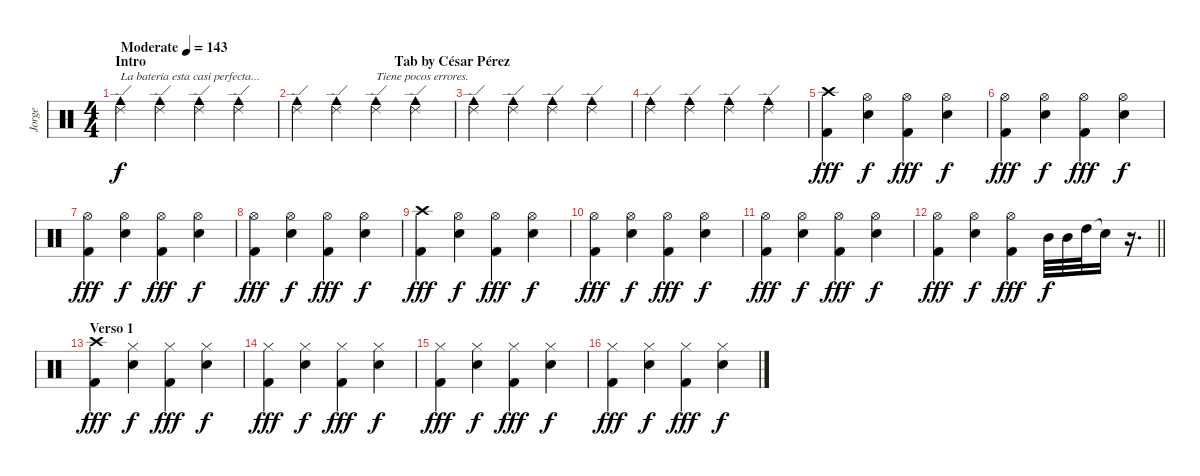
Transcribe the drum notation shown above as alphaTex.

\track ("Jorge" "Jorge") {instrument percussion}
\staff {score}
\articulation defaults
\ts (4 4)
\section ("" "Intro                                                                       Tab by César Pérez")
\tempo (143 "Moderate")
\clef neutral
\ks c
("Ride (edge) 2" "Cowbell medium (hit)").4{txt "La batería esta casi perfecta..." dy f} ("Ride (edge) 2" "Cowbell medium (hit)").4 ("Ride (edge) 2" "Cowbell medium (hit)").4 ("Ride (edge) 2" "Cowbell medium (hit)").4 |
("Ride (edge) 2" "Cowbell medium (hit)").4 ("Ride (edge) 2" "Cowbell medium (hit)").4 ("Ride (edge) 2" "Cowbell medium (hit)").4{txt "Tiene pocos errores."} ("Ride (edge) 2" "Cowbell medium (hit)").4 |
("Ride (edge) 2" "Cowbell medium (hit)").4 ("Ride (edge) 2" "Cowbell medium (hit)").4 ("Ride (edge) 2" "Cowbell medium (hit)").4 ("Ride (edge) 2" "Cowbell medium (hit)").4 |
("Ride (edge) 2" "Cowbell medium (hit)").4 ("Ride (edge) 2" "Cowbell medium (hit)").4 ("Ride (edge) 2" "Cowbell medium (hit)").4 ("Ride (edge) 2" "Cowbell medium (hit)").4 |
("Crash high (hit)" "Kick (hit) 2").4{dy fff} ("Hi-Hat (open)" "Electric Snare (hit)").4{dy f} ("Hi-Hat (open)" "Kick (hit) 2").4{dy fff} ("Hi-Hat (open)" "Electric Snare (hit)").4{dy f} |
("Hi-Hat (open)" "Kick (hit) 2").4{dy fff} ("Hi-Hat (open)" "Electric Snare (hit)").4{dy f} ("Hi-Hat (open)" "Kick (hit) 2").4{dy fff} ("Hi-Hat (open)" "Electric Snare (hit)").4{dy f} |
("Hi-Hat (open)" "Kick (hit) 2").4{dy fff} ("Hi-Hat (open)" "Electric Snare (hit)").4{dy f} ("Hi-Hat (open)" "Kick (hit) 2").4{dy fff} ("Hi-Hat (open)" "Electric Snare (hit)").4{dy f} |
("Hi-Hat (open)" "Kick (hit) 2").4{dy fff} ("Hi-Hat (open)" "Electric Snare (hit)").4{dy f} ("Hi-Hat (open)" "Kick (hit) 2").4{dy fff} ("Hi-Hat (open)" "Electric Snare (hit)").4{dy f} |
("Crash high (hit)" "Kick (hit) 2").4{dy fff} ("Hi-Hat (open)" "Electric Snare (hit)").4{dy f} ("Hi-Hat (open)" "Kick (hit) 2").4{dy fff} ("Hi-Hat (open)" "Electric Snare (hit)").4{dy f} |
("Hi-Hat (open)" "Kick (hit) 2").4{dy fff} ("Hi-Hat (open)" "Electric Snare (hit)").4{dy f} ("Hi-Hat (open)" "Kick (hit) 2").4{dy fff} ("Hi-Hat (open)" "Electric Snare (hit)").4{dy f} |
("Hi-Hat (open)" "Kick (hit) 2").4{dy fff} ("Hi-Hat (open)" "Electric Snare (hit)").4{dy f} ("Hi-Hat (open)" "Kick (hit) 2").4{dy fff} ("Hi-Hat (open)" "Electric Snare (hit)").4{dy f} |
\barLineRight lightlight
("Hi-Hat (open)" "Kick (hit) 2").4{dy fff} ("Hi-Hat (open)" "Electric Snare (hit)").4{dy f} ("Hi-Hat (open)" "Kick (hit) 2").4{dy fff} "Mid Tom (hit)".32{dy f} "Mid Tom (hit)".32 "High Tom (hit)".32 "Snare (hit)"{t}.16 r.16{d} |
\section ("" "Verso 1")
("Crash high (hit)" "Kick (hit) 2").4{dy fff} ("Hi-Hat (closed)" "Electric Snare (hit)").4{dy f} ("Hi-Hat (closed)" "Kick (hit) 2").4{dy fff} ("Hi-Hat (closed)" "Electric Snare (hit)").4{dy f} |
("Hi-Hat (closed)" "Kick (hit) 2").4{dy fff} ("Hi-Hat (closed)" "Electric Snare (hit)").4{dy f} ("Hi-Hat (closed)" "Kick (hit) 2").4{dy fff} ("Hi-Hat (closed)" "Electric Snare (hit)").4{dy f} |
("Hi-Hat (closed)" "Kick (hit) 2").4{dy fff} ("Hi-Hat (closed)" "Electric Snare (hit)").4{dy f} ("Hi-Hat (closed)" "Kick (hit) 2").4{dy fff} ("Hi-Hat (closed)" "Electric Snare (hit)").4{dy f} |
("Hi-Hat (closed)" "Kick (hit) 2").4{dy fff} ("Hi-Hat (closed)" "Electric Snare (hit)").4{dy f} ("Hi-Hat (closed)" "Kick (hit) 2").4{dy fff} ("Hi-Hat (closed)" "Electric Snare (hit)").4{dy f}
